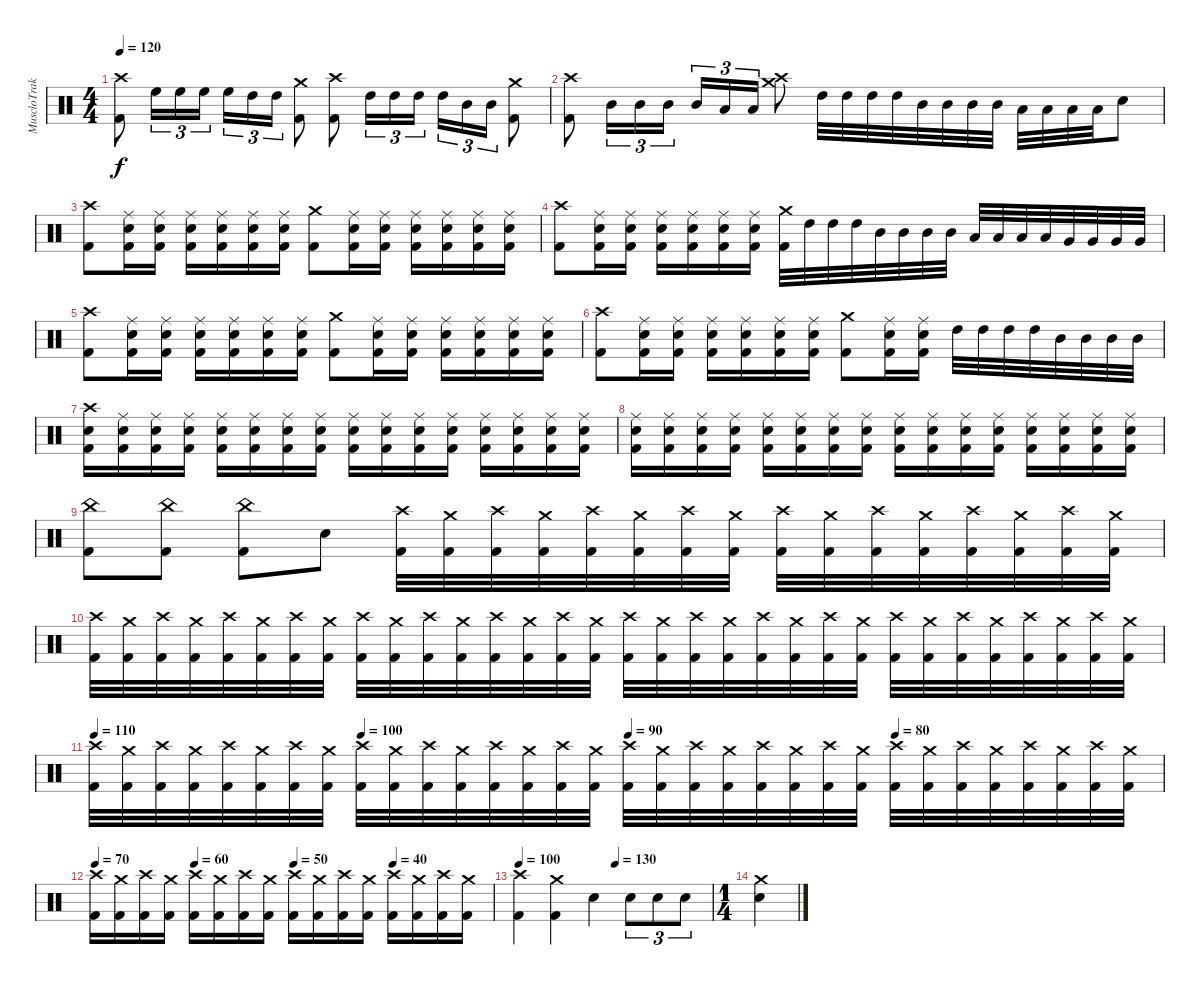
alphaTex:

\track ("MuscloTraktor" "MuscloTrak") {instrument percussion}
\staff {score}
\articulation defaults
\ts (4 4)
\tempo 120
\clef neutral
\ks c
("Kick (hit) 2" "Crash high (hit)").8{dy f} "High Floor Tom (hit)".16{tu (3 2)} "High Floor Tom (hit)".16{tu (3 2)} "High Floor Tom (hit)".16{tu (3 2)} "High Floor Tom (hit)".16{tu (3 2)} "High Tom (hit)".16{tu (3 2)} "High Tom (hit)".16{tu (3 2)} ("Kick (hit) 2" "Crash medium (hit)").8 ("Kick (hit) 2" "Crash high (hit)").8 "High Tom (hit)".16{tu (3 2)} "High Tom (hit)".16{tu (3 2)} "High Tom (hit)".16{tu (3 2)} "High Tom (hit)".16{tu (3 2)} "Mid Tom (hit)".16{tu (3 2)} "Mid Tom (hit)".16{tu (3 2)} ("Kick (hit) 2" "Crash medium (hit)").8 |
("Kick (hit) 2" "Crash high (hit)").8 "Mid Tom (hit)".16{tu (3 2)} "Mid Tom (hit)".16{tu (3 2)} "Mid Tom (hit)".16{tu (3 2)} "Mid Tom (hit)".16{tu (3 2)} "Low Tom (hit)".16{tu (3 2)} "Low Tom (hit)".16{tu (3 2)} ("Crash medium (hit)" "Crash high (hit)").8 "High Tom (hit)".32 "High Tom (hit)".32 "High Tom (hit)".32 "High Tom (hit)".32 "Mid Tom (hit)".32 "Mid Tom (hit)".32 "Mid Tom (hit)".32 "Mid Tom (hit)".32 "Low Tom (hit)".32 "Low Tom (hit)".32 "Low Tom (hit)".32 "Low Tom (hit)".32 "Electric Snare (hit)".8 |
("Kick (hit) 2" "Crash high (hit)").8 ("Kick (hit) 2" "Electric Snare (hit)" "Ride (middle)").16 ("Kick (hit) 2" "Electric Snare (hit)" "Ride (middle)").16 ("Kick (hit) 2" "Electric Snare (hit)" "Ride (middle)").16 ("Kick (hit) 2" "Electric Snare (hit)" "Ride (middle)").16 ("Kick (hit) 2" "Electric Snare (hit)" "Ride (middle)").16 ("Kick (hit) 2" "Electric Snare (hit)" "Ride (middle)").16 ("Kick (hit) 2" "Crash medium (hit)").8 ("Kick (hit) 2" "Electric Snare (hit)" "Ride (middle)").16 ("Kick (hit) 2" "Electric Snare (hit)" "Ride (middle)").16 ("Kick (hit) 2" "Electric Snare (hit)" "Ride (middle)").16 ("Kick (hit) 2" "Electric Snare (hit)" "Ride (middle)").16 ("Kick (hit) 2" "Electric Snare (hit)" "Ride (middle)").16 ("Kick (hit) 2" "Electric Snare (hit)" "Ride (middle)").16 |
("Kick (hit) 2" "Crash high (hit)").8 ("Kick (hit) 2" "Electric Snare (hit)" "Ride (middle)").16 ("Kick (hit) 2" "Electric Snare (hit)" "Ride (middle)").16 ("Kick (hit) 2" "Electric Snare (hit)" "Ride (middle)").16 ("Kick (hit) 2" "Electric Snare (hit)" "Ride (middle)").16 ("Kick (hit) 2" "Electric Snare (hit)" "Ride (middle)").16 ("Kick (hit) 2" "Electric Snare (hit)" "Ride (middle)").16 ("Kick (hit) 2" "Crash medium (hit)").32 "High Tom (hit)".32 "High Tom (hit)".32 "High Tom (hit)".32 "Mid Tom (hit)".32 "Mid Tom (hit)".32 "Mid Tom (hit)".32 "Mid Tom (hit)".32 "Low Tom (hit)".32 "Low Tom (hit)".32 "Low Tom (hit)".32 "Low Tom (hit)".32 "Very Low Tom (hit)".32 "Very Low Tom (hit)".32 "Very Low Tom (hit)".32 "Very Low Tom (hit)".32 |
("Kick (hit) 2" "Crash high (hit)").8 ("Kick (hit) 2" "Electric Snare (hit)" "Ride (middle)").16 ("Kick (hit) 2" "Electric Snare (hit)" "Ride (middle)").16 ("Kick (hit) 2" "Electric Snare (hit)" "Ride (middle)").16 ("Kick (hit) 2" "Electric Snare (hit)" "Ride (middle)").16 ("Kick (hit) 2" "Electric Snare (hit)" "Ride (middle)").16 ("Kick (hit) 2" "Electric Snare (hit)" "Ride (middle)").16 ("Kick (hit) 2" "Crash medium (hit)").8 ("Kick (hit) 2" "Electric Snare (hit)" "Ride (middle)").16 ("Kick (hit) 2" "Electric Snare (hit)" "Ride (middle)").16 ("Kick (hit) 2" "Electric Snare (hit)" "Ride (middle)").16 ("Kick (hit) 2" "Electric Snare (hit)" "Ride (middle)").16 ("Kick (hit) 2" "Electric Snare (hit)" "Ride (middle)").16 ("Kick (hit) 2" "Electric Snare (hit)" "Ride (middle)").16 |
("Kick (hit) 2" "Crash high (hit)").8 ("Kick (hit) 2" "Electric Snare (hit)" "Ride (middle)").16 ("Kick (hit) 2" "Electric Snare (hit)" "Ride (middle)").16 ("Kick (hit) 2" "Electric Snare (hit)" "Ride (middle)").16 ("Kick (hit) 2" "Electric Snare (hit)" "Ride (middle)").16 ("Kick (hit) 2" "Electric Snare (hit)" "Ride (middle)").16 ("Kick (hit) 2" "Electric Snare (hit)" "Ride (middle)").16 ("Kick (hit) 2" "Crash medium (hit)").8 ("Kick (hit) 2" "Electric Snare (hit)" "Ride (middle)").16 ("Kick (hit) 2" "Electric Snare (hit)" "Ride (middle)").16 "High Tom (hit)".32 "High Tom (hit)".32 "High Tom (hit)".32 "High Tom (hit)".32 "Mid Tom (hit)".32 "Mid Tom (hit)".32 "Mid Tom (hit)".32 "Mid Tom (hit)".32 |
("Kick (hit) 2" "Electric Snare (hit)" "Crash high (hit)").16 ("Kick (hit) 2" "Electric Snare (hit)" "Ride (middle)").16 ("Kick (hit) 2" "Electric Snare (hit)" "Ride (middle)").16 ("Kick (hit) 2" "Electric Snare (hit)" "Ride (middle)").16 ("Kick (hit) 2" "Electric Snare (hit)" "Ride (middle)").16 ("Kick (hit) 2" "Electric Snare (hit)" "Ride (middle)").16 ("Kick (hit) 2" "Electric Snare (hit)" "Ride (middle)").16 ("Kick (hit) 2" "Electric Snare (hit)" "Ride (middle)").16 ("Kick (hit) 2" "Electric Snare (hit)" "Ride (middle)").16 ("Kick (hit) 2" "Electric Snare (hit)" "Ride (middle)").16 ("Kick (hit) 2" "Electric Snare (hit)" "Ride (middle)").16 ("Kick (hit) 2" "Electric Snare (hit)" "Ride (middle)").16 ("Kick (hit) 2" "Electric Snare (hit)" "Ride (middle)").16 ("Kick (hit) 2" "Electric Snare (hit)" "Ride (middle)").16 ("Kick (hit) 2" "Electric Snare (hit)" "Ride (middle)").16 ("Kick (hit) 2" "Electric Snare (hit)" "Ride (middle)").16 |
("Kick (hit) 2" "Electric Snare (hit)" "Ride (middle)").16 ("Kick (hit) 2" "Electric Snare (hit)" "Ride (middle)").16 ("Kick (hit) 2" "Electric Snare (hit)" "Ride (middle)").16 ("Kick (hit) 2" "Electric Snare (hit)" "Ride (middle)").16 ("Kick (hit) 2" "Electric Snare (hit)" "Ride (middle)").16 ("Kick (hit) 2" "Electric Snare (hit)" "Ride (middle)").16 ("Kick (hit) 2" "Electric Snare (hit)" "Ride (middle)").16 ("Kick (hit) 2" "Electric Snare (hit)" "Ride (middle)").16 ("Kick (hit) 2" "Electric Snare (hit)" "Ride (middle)").16 ("Kick (hit) 2" "Electric Snare (hit)" "Ride (middle)").16 ("Kick (hit) 2" "Electric Snare (hit)" "Ride (middle)").16 ("Kick (hit) 2" "Electric Snare (hit)" "Ride (middle)").16 ("Kick (hit) 2" "Electric Snare (hit)" "Ride (middle)").16 ("Kick (hit) 2" "Electric Snare (hit)" "Ride (middle)").16 ("Kick (hit) 2" "Electric Snare (hit)" "Ride (middle)").16 ("Kick (hit) 2" "Electric Snare (hit)" "Ride (middle)").16 |
("Kick (hit) 2" "China (hit)").8 ("Kick (hit) 2" "China (hit)").8 ("Kick (hit) 2" "China (hit)").8 "Electric Snare (hit)".8 ("Kick (hit) 2" "Crash high (hit)").32 ("Kick (hit) 2" "Crash medium (hit)").32 ("Kick (hit) 2" "Crash high (hit)").32 ("Kick (hit) 2" "Crash medium (hit)").32 ("Kick (hit) 2" "Crash high (hit)").32 ("Kick (hit) 2" "Crash medium (hit)").32 ("Kick (hit) 2" "Crash high (hit)").32 ("Kick (hit) 2" "Crash medium (hit)").32 ("Kick (hit) 2" "Crash high (hit)").32 ("Kick (hit) 2" "Crash medium (hit)").32 ("Kick (hit) 2" "Crash high (hit)").32 ("Kick (hit) 2" "Crash medium (hit)").32 ("Kick (hit) 2" "Crash high (hit)").32 ("Kick (hit) 2" "Crash medium (hit)").32 ("Kick (hit) 2" "Crash high (hit)").32 ("Kick (hit) 2" "Crash medium (hit)").32 |
("Kick (hit) 2" "Crash high (hit)").32 ("Kick (hit) 2" "Crash medium (hit)").32 ("Kick (hit) 2" "Crash high (hit)").32 ("Kick (hit) 2" "Crash medium (hit)").32 ("Kick (hit) 2" "Crash high (hit)").32 ("Kick (hit) 2" "Crash medium (hit)").32 ("Kick (hit) 2" "Crash high (hit)").32 ("Kick (hit) 2" "Crash medium (hit)").32 ("Kick (hit) 2" "Crash high (hit)").32 ("Kick (hit) 2" "Crash medium (hit)").32 ("Kick (hit) 2" "Crash high (hit)").32 ("Kick (hit) 2" "Crash medium (hit)").32 ("Kick (hit) 2" "Crash high (hit)").32 ("Kick (hit) 2" "Crash medium (hit)").32 ("Kick (hit) 2" "Crash high (hit)").32 ("Kick (hit) 2" "Crash medium (hit)").32 ("Kick (hit) 2" "Crash high (hit)").32 ("Kick (hit) 2" "Crash medium (hit)").32 ("Kick (hit) 2" "Crash high (hit)").32 ("Kick (hit) 2" "Crash medium (hit)").32 ("Kick (hit) 2" "Crash high (hit)").32 ("Kick (hit) 2" "Crash medium (hit)").32 ("Kick (hit) 2" "Crash high (hit)").32 ("Kick (hit) 2" "Crash medium (hit)").32 ("Kick (hit) 2" "Crash high (hit)").32 ("Kick (hit) 2" "Crash medium (hit)").32 ("Kick (hit) 2" "Crash high (hit)").32 ("Kick (hit) 2" "Crash medium (hit)").32 ("Kick (hit) 2" "Crash high (hit)").32 ("Kick (hit) 2" "Crash medium (hit)").32 ("Kick (hit) 2" "Crash high (hit)").32 ("Kick (hit) 2" "Crash medium (hit)").32 |
\tempo 110
\tempo (100 0.25)
\tempo (90 0.5)
\tempo (80 0.75)
("Kick (hit) 2" "Crash high (hit)").32 ("Kick (hit) 2" "Crash medium (hit)").32 ("Kick (hit) 2" "Crash high (hit)").32 ("Kick (hit) 2" "Crash medium (hit)").32 ("Kick (hit) 2" "Crash high (hit)").32 ("Kick (hit) 2" "Crash medium (hit)").32 ("Kick (hit) 2" "Crash high (hit)").32 ("Kick (hit) 2" "Crash medium (hit)").32 ("Kick (hit) 2" "Crash high (hit)").32 ("Kick (hit) 2" "Crash medium (hit)").32 ("Kick (hit) 2" "Crash high (hit)").32 ("Kick (hit) 2" "Crash medium (hit)").32 ("Kick (hit) 2" "Crash high (hit)").32 ("Kick (hit) 2" "Crash medium (hit)").32 ("Kick (hit) 2" "Crash high (hit)").32 ("Kick (hit) 2" "Crash medium (hit)").32 ("Kick (hit) 2" "Crash high (hit)").32 ("Kick (hit) 2" "Crash medium (hit)").32 ("Kick (hit) 2" "Crash high (hit)").32 ("Kick (hit) 2" "Crash medium (hit)").32 ("Kick (hit) 2" "Crash high (hit)").32 ("Kick (hit) 2" "Crash medium (hit)").32 ("Kick (hit) 2" "Crash high (hit)").32 ("Kick (hit) 2" "Crash medium (hit)").32 ("Kick (hit) 2" "Crash high (hit)").32 ("Kick (hit) 2" "Crash medium (hit)").32 ("Kick (hit) 2" "Crash high (hit)").32 ("Kick (hit) 2" "Crash medium (hit)").32 ("Kick (hit) 2" "Crash high (hit)").32 ("Kick (hit) 2" "Crash medium (hit)").32 ("Kick (hit) 2" "Crash high (hit)").32 ("Kick (hit) 2" "Crash medium (hit)").32 |
\tempo 70
\tempo (60 0.25)
\tempo (50 0.5)
\tempo (40 0.75)
("Kick (hit) 2" "Crash high (hit)").16 ("Kick (hit) 2" "Crash medium (hit)").16 ("Kick (hit) 2" "Crash high (hit)").16 ("Kick (hit) 2" "Crash medium (hit)").16 ("Kick (hit) 2" "Crash high (hit)").16 ("Kick (hit) 2" "Crash medium (hit)").16 ("Kick (hit) 2" "Crash high (hit)").16 ("Kick (hit) 2" "Crash medium (hit)").16 ("Kick (hit) 2" "Crash high (hit)").16 ("Kick (hit) 2" "Crash medium (hit)").16 ("Kick (hit) 2" "Crash high (hit)").16 ("Kick (hit) 2" "Crash medium (hit)").16 ("Kick (hit) 2" "Crash high (hit)").16 ("Kick (hit) 2" "Crash medium (hit)").16 ("Kick (hit) 2" "Crash high (hit)").16 ("Kick (hit) 2" "Crash medium (hit)").16 |
\tempo 100
\tempo (130 0.5)
("Kick (hit) 2" "Crash high (hit)").4 ("Kick (hit) 2" "Crash medium (hit)").4 "Electric Snare (hit)".4 "Electric Snare (hit)".8{tu (3 2)} "Electric Snare (hit)".8{tu (3 2)} "Electric Snare (hit)".8{tu (3 2)} |
\ts (1 4)
("Electric Snare (hit)" "Crash medium (hit)").4
